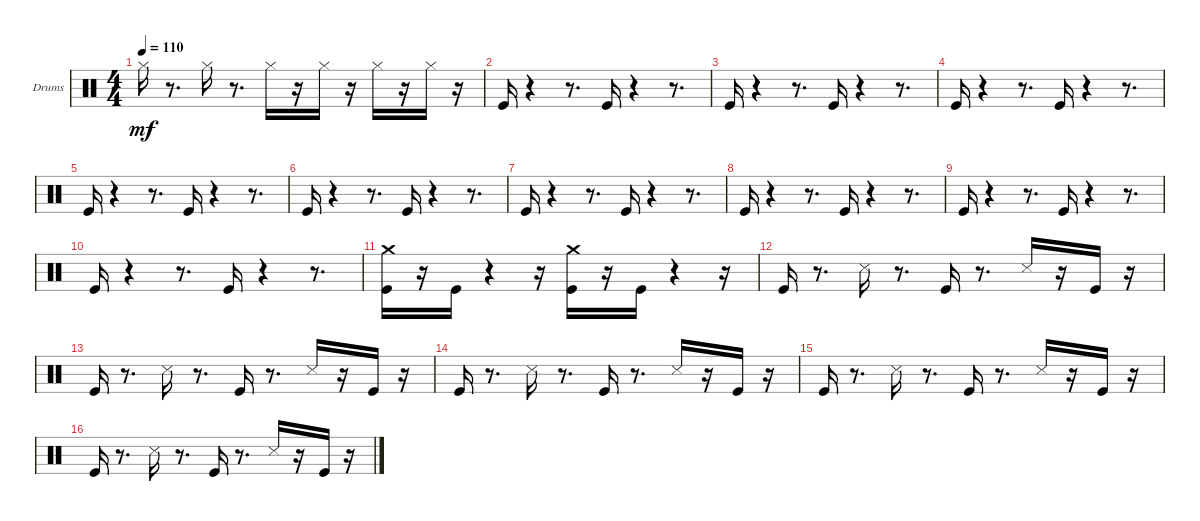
\defaultSystemsLayout 4
\bracketExtendMode groupsimilarinstruments
\firstSystemTrackNameOrientation horizontal
\otherSystemsTrackNameOrientation horizontal
\track ("Барабаны" "Drums") {instrument percussion}
\staff {score}
\articulation defaults
\ts (4 4)
\tempo 110
\clef neutral
\ks c "Hi-Hat (closed)".16{dy mf}
r.8{d} "Hi-Hat (closed)".16 r.8{d} "Hi-Hat (closed)".16 r.16 "Hi-Hat (closed)".16 r.16 "Hi-Hat (closed)".16 r.16 "Hi-Hat (closed)".16 r.16 |
"Kick (hit)".16 r.4 r.8{d} "Kick (hit)".16 r.4 r.8{d} |
"Kick (hit)".16 r.4 r.8{d} "Kick (hit)".16 r.4 r.8{d} |
"Kick (hit)".16 r.4 r.8{d} "Kick (hit)".16 r.4 r.8{d} |
"Kick (hit)".16 r.4 r.8{d} "Kick (hit)".16 r.4 r.8{d} |
"Kick (hit)".16 r.4 r.8{d} "Kick (hit)".16 r.4 r.8{d} |
"Kick (hit)".16 r.4 r.8{d} "Kick (hit)".16 r.4 r.8{d} |
"Kick (hit)".16 r.4 r.8{d} "Kick (hit)".16 r.4 r.8{d} |
"Kick (hit)".16 r.4 r.8{d} "Kick (hit)".16 r.4 r.8{d} |
"Kick (hit)".16 r.4 r.8{d} "Kick (hit)".16 r.4 r.8{d} |
("Kick (hit)" "Crash medium (hit)").16 r.16 "Kick (hit)".16 r.4 r.16 ("Kick (hit)" "Crash medium (hit)").16 r.16 "Kick (hit)".16 r.4 r.16 |
"Kick (hit)".16 r.8{d} "Snare (side stick) 3".16 r.8{d} "Kick (hit)".16 r.8{d} "Snare (side stick) 3".16 r.16 "Kick (hit)".16 r.16 |
"Kick (hit)".16 r.8{d} "Snare (side stick) 3".16 r.8{d} "Kick (hit)".16 r.8{d} "Snare (side stick) 3".16 r.16 "Kick (hit)".16 r.16 |
"Kick (hit)".16 r.8{d} "Snare (side stick) 3".16 r.8{d} "Kick (hit)".16 r.8{d} "Snare (side stick) 3".16 r.16 "Kick (hit)".16 r.16 |
"Kick (hit)".16 r.8{d} "Snare (side stick) 3".16 r.8{d} "Kick (hit)".16 r.8{d} "Snare (side stick) 3".16 r.16 "Kick (hit)".16 r.16 |
"Kick (hit)".16 r.8{d} "Snare (side stick) 3".16 r.8{d} "Kick (hit)".16 r.8{d} "Snare (side stick) 3".16 r.16 "Kick (hit)".16 r.16
